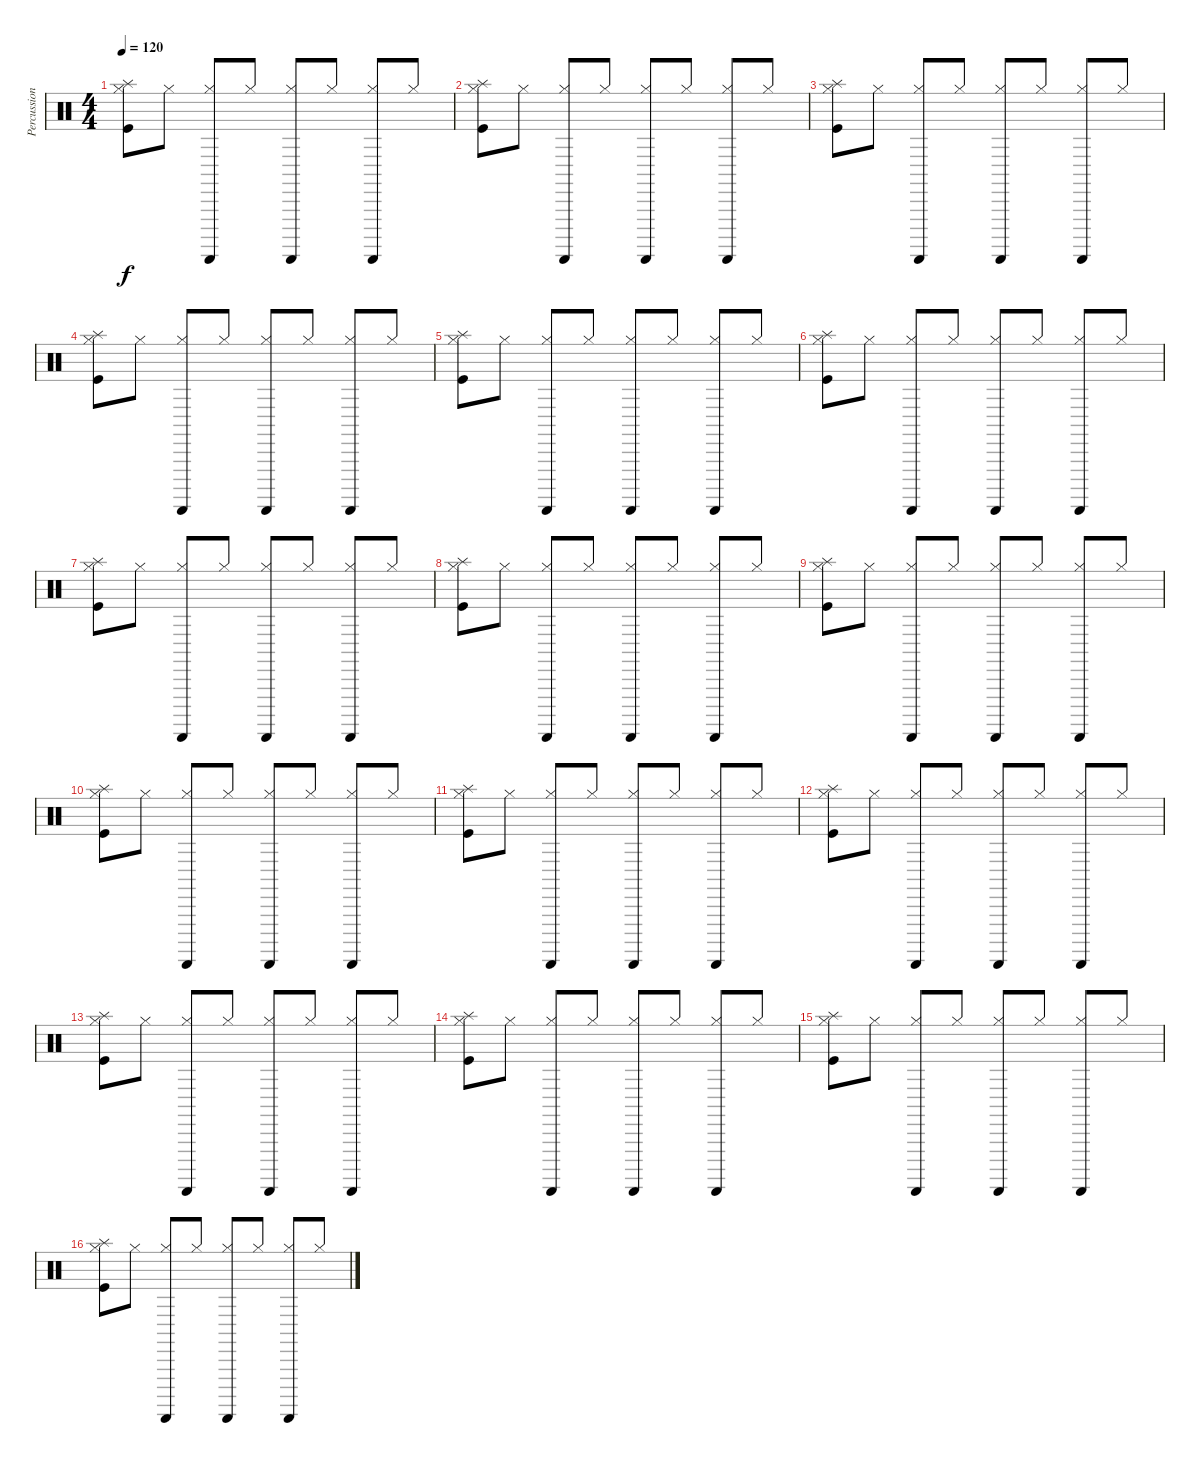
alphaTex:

\track ("Percussion" "Percussion") {instrument percussion}
\staff {score}
\articulation defaults
\ts (4 4)
\tempo 120
\clef neutral
\ks c
("Splash (hit)" "Kick (hit)" "Hi-Hat (closed)").8{dy f} "Hi-Hat (closed)".8 ("Guiro (scrap-return)" "Hi-Hat (closed)").8 "Hi-Hat (closed)".8 ("Guiro (scrap-return)" "Hi-Hat (closed)").8 "Hi-Hat (closed)".8 ("Guiro (scrap-return)" "Hi-Hat (closed)").8 "Hi-Hat (closed)".8 |
("Splash (hit)" "Kick (hit)" "Hi-Hat (closed)").8 "Hi-Hat (closed)".8 ("Guiro (scrap-return)" "Hi-Hat (closed)").8 "Hi-Hat (closed)".8 ("Guiro (scrap-return)" "Hi-Hat (closed)").8 "Hi-Hat (closed)".8 ("Guiro (scrap-return)" "Hi-Hat (closed)").8 "Hi-Hat (closed)".8 |
("Splash (hit)" "Kick (hit)" "Hi-Hat (closed)").8 "Hi-Hat (closed)".8 ("Guiro (scrap-return)" "Hi-Hat (closed)").8 "Hi-Hat (closed)".8 ("Guiro (scrap-return)" "Hi-Hat (closed)").8 "Hi-Hat (closed)".8 ("Guiro (scrap-return)" "Hi-Hat (closed)").8 "Hi-Hat (closed)".8 |
("Splash (hit)" "Kick (hit)" "Hi-Hat (closed)").8 "Hi-Hat (closed)".8 ("Guiro (scrap-return)" "Hi-Hat (closed)").8 "Hi-Hat (closed)".8 ("Guiro (scrap-return)" "Hi-Hat (closed)").8 "Hi-Hat (closed)".8 ("Guiro (scrap-return)" "Hi-Hat (closed)").8 "Hi-Hat (closed)".8 |
("Splash (hit)" "Kick (hit)" "Hi-Hat (closed)").8 "Hi-Hat (closed)".8 ("Guiro (scrap-return)" "Hi-Hat (closed)").8 "Hi-Hat (closed)".8 ("Guiro (scrap-return)" "Hi-Hat (closed)").8 "Hi-Hat (closed)".8 ("Guiro (scrap-return)" "Hi-Hat (closed)").8 "Hi-Hat (closed)".8 |
("Splash (hit)" "Kick (hit)" "Hi-Hat (closed)").8 "Hi-Hat (closed)".8 ("Guiro (scrap-return)" "Hi-Hat (closed)").8 "Hi-Hat (closed)".8 ("Guiro (scrap-return)" "Hi-Hat (closed)").8 "Hi-Hat (closed)".8 ("Guiro (scrap-return)" "Hi-Hat (closed)").8 "Hi-Hat (closed)".8 |
("Splash (hit)" "Kick (hit)" "Hi-Hat (closed)").8 "Hi-Hat (closed)".8 ("Guiro (scrap-return)" "Hi-Hat (closed)").8 "Hi-Hat (closed)".8 ("Guiro (scrap-return)" "Hi-Hat (closed)").8 "Hi-Hat (closed)".8 ("Guiro (scrap-return)" "Hi-Hat (closed)").8 "Hi-Hat (closed)".8 |
("Splash (hit)" "Kick (hit)" "Hi-Hat (closed)").8 "Hi-Hat (closed)".8 ("Guiro (scrap-return)" "Hi-Hat (closed)").8 "Hi-Hat (closed)".8 ("Guiro (scrap-return)" "Hi-Hat (closed)").8 "Hi-Hat (closed)".8 ("Guiro (scrap-return)" "Hi-Hat (closed)").8 "Hi-Hat (closed)".8 |
("Splash (hit)" "Kick (hit)" "Hi-Hat (closed)").8 "Hi-Hat (closed)".8 ("Guiro (scrap-return)" "Hi-Hat (closed)").8 "Hi-Hat (closed)".8 ("Guiro (scrap-return)" "Hi-Hat (closed)").8 "Hi-Hat (closed)".8 ("Guiro (scrap-return)" "Hi-Hat (closed)").8 "Hi-Hat (closed)".8 |
("Splash (hit)" "Kick (hit)" "Hi-Hat (closed)").8 "Hi-Hat (closed)".8 ("Guiro (scrap-return)" "Hi-Hat (closed)").8 "Hi-Hat (closed)".8 ("Guiro (scrap-return)" "Hi-Hat (closed)").8 "Hi-Hat (closed)".8 ("Guiro (scrap-return)" "Hi-Hat (closed)").8 "Hi-Hat (closed)".8 |
("Splash (hit)" "Kick (hit)" "Hi-Hat (closed)").8 "Hi-Hat (closed)".8 ("Guiro (scrap-return)" "Hi-Hat (closed)").8 "Hi-Hat (closed)".8 ("Guiro (scrap-return)" "Hi-Hat (closed)").8 "Hi-Hat (closed)".8 ("Guiro (scrap-return)" "Hi-Hat (closed)").8 "Hi-Hat (closed)".8 |
("Splash (hit)" "Kick (hit)" "Hi-Hat (closed)").8 "Hi-Hat (closed)".8 ("Guiro (scrap-return)" "Hi-Hat (closed)").8 "Hi-Hat (closed)".8 ("Guiro (scrap-return)" "Hi-Hat (closed)").8 "Hi-Hat (closed)".8 ("Guiro (scrap-return)" "Hi-Hat (closed)").8 "Hi-Hat (closed)".8 |
("Splash (hit)" "Kick (hit)" "Hi-Hat (closed)").8 "Hi-Hat (closed)".8 ("Guiro (scrap-return)" "Hi-Hat (closed)").8 "Hi-Hat (closed)".8 ("Guiro (scrap-return)" "Hi-Hat (closed)").8 "Hi-Hat (closed)".8 ("Guiro (scrap-return)" "Hi-Hat (closed)").8 "Hi-Hat (closed)".8 |
("Splash (hit)" "Kick (hit)" "Hi-Hat (closed)").8 "Hi-Hat (closed)".8 ("Guiro (scrap-return)" "Hi-Hat (closed)").8 "Hi-Hat (closed)".8 ("Guiro (scrap-return)" "Hi-Hat (closed)").8 "Hi-Hat (closed)".8 ("Guiro (scrap-return)" "Hi-Hat (closed)").8 "Hi-Hat (closed)".8 |
("Splash (hit)" "Kick (hit)" "Hi-Hat (closed)").8 "Hi-Hat (closed)".8 ("Guiro (scrap-return)" "Hi-Hat (closed)").8 "Hi-Hat (closed)".8 ("Guiro (scrap-return)" "Hi-Hat (closed)").8 "Hi-Hat (closed)".8 ("Guiro (scrap-return)" "Hi-Hat (closed)").8 "Hi-Hat (closed)".8 |
("Splash (hit)" "Kick (hit)" "Hi-Hat (closed)").8 "Hi-Hat (closed)".8 ("Guiro (scrap-return)" "Hi-Hat (closed)").8 "Hi-Hat (closed)".8 ("Guiro (scrap-return)" "Hi-Hat (closed)").8 "Hi-Hat (closed)".8 ("Guiro (scrap-return)" "Hi-Hat (closed)").8 "Hi-Hat (closed)".8
